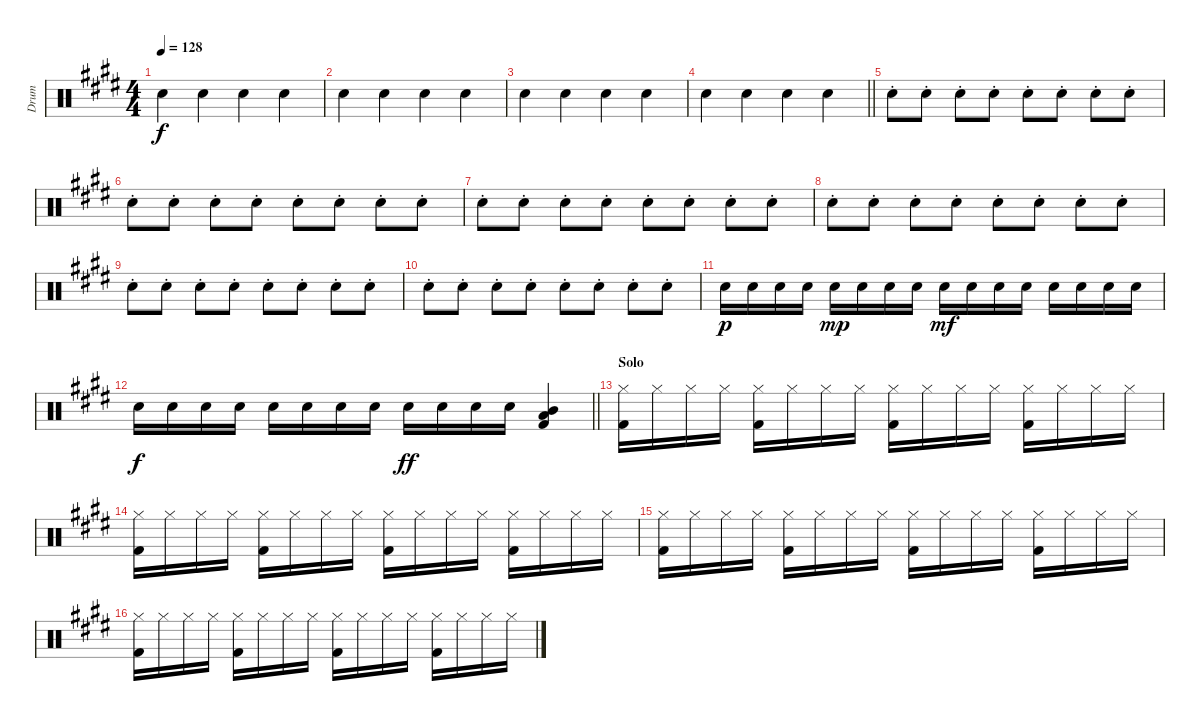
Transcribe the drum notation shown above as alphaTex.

\track ("Drum" "Drum") {instrument percussion}
\staff {score}
\articulation defaults
\ts (4 4)
\tempo 128
\clef neutral
\ks c#minor "Snare (hit) 2".4{dy f} "Snare (hit) 2".4 "Snare (hit) 2".4 "Snare (hit) 2".4
|
"Snare (hit) 2".4 "Snare (hit) 2".4 "Snare (hit) 2".4 "Snare (hit) 2".4 |
"Snare (hit) 2".4 "Snare (hit) 2".4 "Snare (hit) 2".4 "Snare (hit) 2".4 |
\barLineRight lightlight "Snare (hit) 2".4 "Snare (hit) 2".4 "Snare (hit) 2".4 "Snare (hit) 2".4
|
"Snare (hit) 2"{st}.8 "Snare (hit) 2"{st}.8 "Snare (hit) 2"{st}.8 "Snare (hit) 2"{st}.8 "Snare (hit) 2"{st}.8 "Snare (hit) 2"{st}.8 "Snare (hit) 2"{st}.8 "Snare (hit) 2"{st}.8 |
"Snare (hit) 2"{st}.8 "Snare (hit) 2"{st}.8 "Snare (hit) 2"{st}.8 "Snare (hit) 2"{st}.8 "Snare (hit) 2"{st}.8 "Snare (hit) 2"{st}.8 "Snare (hit) 2"{st}.8 "Snare (hit) 2"{st}.8 |
"Snare (hit) 2"{st}.8 "Snare (hit) 2"{st}.8 "Snare (hit) 2"{st}.8 "Snare (hit) 2"{st}.8 "Snare (hit) 2"{st}.8 "Snare (hit) 2"{st}.8 "Snare (hit) 2"{st}.8 "Snare (hit) 2"{st}.8 |
"Snare (hit) 2"{st}.8 "Snare (hit) 2"{st}.8 "Snare (hit) 2"{st}.8 "Snare (hit) 2"{st}.8 "Snare (hit) 2"{st}.8 "Snare (hit) 2"{st}.8 "Snare (hit) 2"{st}.8 "Snare (hit) 2"{st}.8 |
"Snare (hit) 2"{st}.8 "Snare (hit) 2"{st}.8 "Snare (hit) 2"{st}.8 "Snare (hit) 2"{st}.8 "Snare (hit) 2"{st}.8 "Snare (hit) 2"{st}.8 "Snare (hit) 2"{st}.8 "Snare (hit) 2"{st}.8 |
"Snare (hit) 2"{st}.8 "Snare (hit) 2"{st}.8 "Snare (hit) 2"{st}.8 "Snare (hit) 2"{st}.8 "Snare (hit) 2"{st}.8 "Snare (hit) 2"{st}.8 "Snare (hit) 2"{st}.8 "Snare (hit) 2"{st}.8 |
"Snare (hit) 2".16{dy p} "Snare (hit) 2".16 "Snare (hit) 2".16 "Snare (hit) 2".16 "Snare (hit) 2".16{dy mp} "Snare (hit) 2".16 "Snare (hit) 2".16 "Snare (hit) 2".16 "Snare (hit) 2".16{dy mf} "Snare (hit) 2".16 "Snare (hit) 2".16 "Snare (hit) 2".16 "Snare (hit) 2".16 "Snare (hit) 2".16 "Snare (hit) 2".16 "Snare (hit) 2".16 |
\barLineRight lightlight "Snare (hit) 2".16{dy f} "Snare (hit) 2".16 "Snare (hit) 2".16 "Snare (hit) 2".16 "Snare (hit) 2".16 "Snare (hit) 2".16 "Snare (hit) 2".16 "Snare (hit) 2".16 "Snare (hit) 2".16{dy ff} "Snare (hit) 2".16 "Snare (hit) 2".16 "Snare (hit) 2".16
("Low Tom (hit)" "Mid Tom (hit)" "Kick (hit) 2").4 |
\section ("" "Solo")
("Hi-Hat (closed)" "Kick (hit) 2").16 "Hi-Hat (closed)".16 "Hi-Hat (closed)".16 "Hi-Hat (closed)".16 ("Hi-Hat (closed)" "Kick (hit) 2").16 "Hi-Hat (closed)".16 "Hi-Hat (closed)".16 "Hi-Hat (closed)".16 ("Hi-Hat (closed)" "Kick (hit) 2").16 "Hi-Hat (closed)".16 "Hi-Hat (closed)".16 "Hi-Hat (closed)".16 ("Hi-Hat (closed)" "Kick (hit) 2").16 "Hi-Hat (closed)".16 "Hi-Hat (closed)".16 "Hi-Hat (closed)".16 |
("Hi-Hat (closed)" "Kick (hit) 2").16 "Hi-Hat (closed)".16 "Hi-Hat (closed)".16 "Hi-Hat (closed)".16 ("Hi-Hat (closed)" "Kick (hit) 2").16 "Hi-Hat (closed)".16 "Hi-Hat (closed)".16 "Hi-Hat (closed)".16 ("Hi-Hat (closed)" "Kick (hit) 2").16 "Hi-Hat (closed)".16 "Hi-Hat (closed)".16 "Hi-Hat (closed)".16 ("Hi-Hat (closed)" "Kick (hit) 2").16 "Hi-Hat (closed)".16 "Hi-Hat (closed)".16 "Hi-Hat (closed)".16 |
("Hi-Hat (closed)" "Kick (hit) 2").16 "Hi-Hat (closed)".16 "Hi-Hat (closed)".16 "Hi-Hat (closed)".16 ("Hi-Hat (closed)" "Kick (hit) 2").16 "Hi-Hat (closed)".16 "Hi-Hat (closed)".16 "Hi-Hat (closed)".16 ("Hi-Hat (closed)" "Kick (hit) 2").16 "Hi-Hat (closed)".16 "Hi-Hat (closed)".16 "Hi-Hat (closed)".16 ("Hi-Hat (closed)" "Kick (hit) 2").16 "Hi-Hat (closed)".16 "Hi-Hat (closed)".16 "Hi-Hat (closed)".16 |
("Hi-Hat (closed)" "Kick (hit) 2").16 "Hi-Hat (closed)".16 "Hi-Hat (closed)".16 "Hi-Hat (closed)".16 ("Hi-Hat (closed)" "Kick (hit) 2").16 "Hi-Hat (closed)".16 "Hi-Hat (closed)".16 "Hi-Hat (closed)".16 ("Hi-Hat (closed)" "Kick (hit) 2").16 "Hi-Hat (closed)".16 "Hi-Hat (closed)".16 "Hi-Hat (closed)".16 ("Hi-Hat (closed)" "Kick (hit) 2").16 "Hi-Hat (closed)".16 "Hi-Hat (closed)".16 "Hi-Hat (closed)".16
